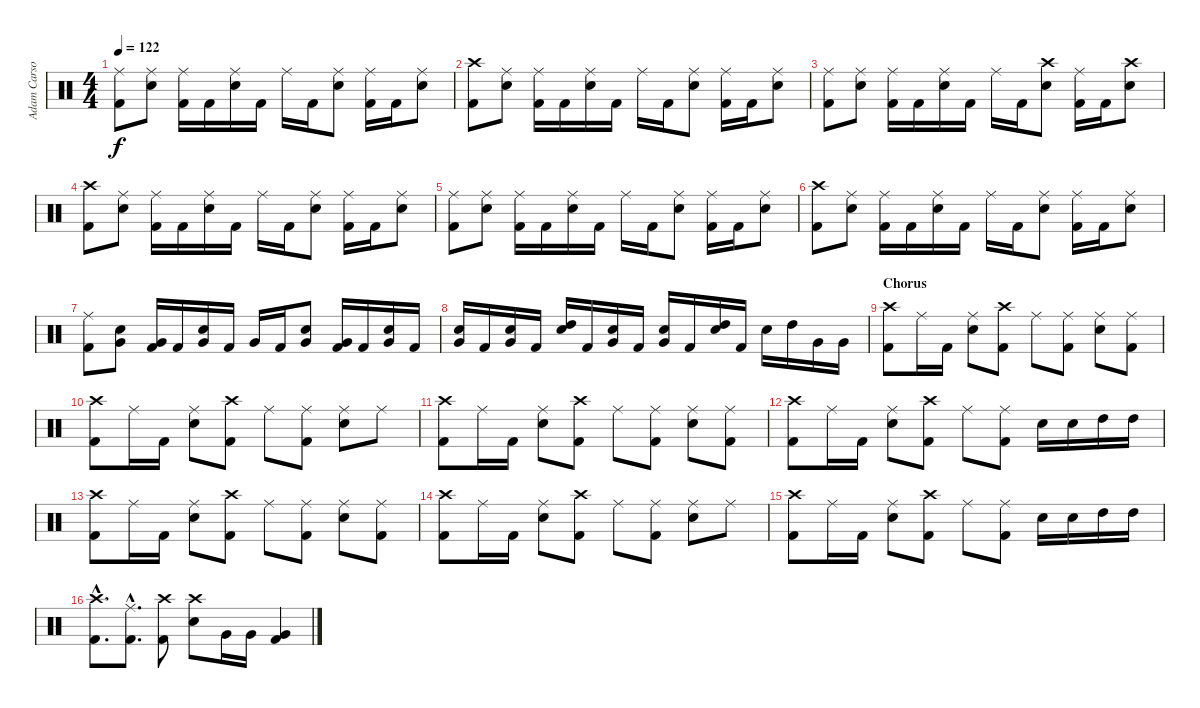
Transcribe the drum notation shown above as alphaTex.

\track ("Adam Carson" "Adam Carso") {instrument percussion}
\staff {score}
\articulation defaults
\ts (4 4)
\tempo 122
\clef neutral
\ks c
("Ride (middle)" "Kick (hit) 2").8{dy f} ("Ride (middle)" "Electric Snare (hit)").8 ("Ride (middle)" "Kick (hit) 2").16 "Kick (hit) 2".16 ("Ride (middle)" "Electric Snare (hit)").16 "Kick (hit) 2".16 "Ride (middle)".16 "Kick (hit) 2".16 ("Ride (middle)" "Electric Snare (hit)").8 ("Ride (middle)" "Kick (hit) 2").16 "Kick (hit) 2".16 ("Ride (middle)" "Electric Snare (hit)").8 |
("Crash high (hit)" "Kick (hit) 2").8 ("Ride (middle)" "Electric Snare (hit)").8 ("Ride (middle)" "Kick (hit) 2").16 "Kick (hit) 2".16 ("Ride (middle)" "Electric Snare (hit)").16 "Kick (hit) 2".16 "Ride (middle)".16 "Kick (hit) 2".16 ("Ride (middle)" "Electric Snare (hit)").8 ("Ride (middle)" "Kick (hit) 2").16 "Kick (hit) 2".16 ("Ride (middle)" "Electric Snare (hit)").8 |
("Ride (middle)" "Kick (hit) 2").8 ("Ride (middle)" "Electric Snare (hit)").8 ("Ride (middle)" "Kick (hit) 2").16 "Kick (hit) 2".16 ("Ride (middle)" "Electric Snare (hit)").16 "Kick (hit) 2".16 "Ride (middle)".16 "Kick (hit) 2".16 ("Crash high (hit)" "Electric Snare (hit)").8 ("Ride (middle)" "Kick (hit) 2").16 "Kick (hit) 2".16 ("Crash high (hit)" "Electric Snare (hit)").8 |
("Crash high (hit)" "Kick (hit) 2").8 ("Ride (middle)" "Electric Snare (hit)").8 ("Ride (middle)" "Kick (hit) 2").16 "Kick (hit) 2".16 ("Ride (middle)" "Electric Snare (hit)").16 "Kick (hit) 2".16 "Ride (middle)".16 "Kick (hit) 2".16 ("Ride (middle)" "Electric Snare (hit)").8 ("Ride (middle)" "Kick (hit) 2").16 "Kick (hit) 2".16 ("Ride (middle)" "Electric Snare (hit)").8 |
("Ride (middle)" "Kick (hit) 2").8 ("Ride (middle)" "Electric Snare (hit)").8 ("Ride (middle)" "Kick (hit) 2").16 "Kick (hit) 2".16 ("Ride (middle)" "Electric Snare (hit)").16 "Kick (hit) 2".16 "Ride (middle)".16 "Kick (hit) 2".16 ("Ride (middle)" "Electric Snare (hit)").8 ("Ride (middle)" "Kick (hit) 2").16 "Kick (hit) 2".16 ("Ride (middle)" "Electric Snare (hit)").8 |
("Crash high (hit)" "Kick (hit) 2").8 ("Ride (middle)" "Electric Snare (hit)").8 ("Ride (middle)" "Kick (hit) 2").16 "Kick (hit) 2".16 ("Ride (middle)" "Electric Snare (hit)").16 "Kick (hit) 2".16 "Ride (middle)".16 "Kick (hit) 2".16 ("Ride (middle)" "Electric Snare (hit)").8 ("Ride (middle)" "Kick (hit) 2").16 "Kick (hit) 2".16 ("Ride (middle)" "Electric Snare (hit)").8 |
("Ride (middle)" "Kick (hit) 2").8 ("Very Low Tom (hit)" "Electric Snare (hit)").8 ("Very Low Tom (hit)" "Kick (hit) 2").16 "Kick (hit) 2".16 ("Very Low Tom (hit)" "Electric Snare (hit)").16 "Kick (hit) 2".16 "Very Low Tom (hit)".16 "Kick (hit) 2".16 ("Very Low Tom (hit)" "Electric Snare (hit)").8 ("Very Low Tom (hit)" "Kick (hit) 2").16 "Kick (hit) 2".16 ("Very Low Tom (hit)" "Electric Snare (hit)").16 "Kick (hit) 2".16 |
("Very Low Tom (hit)" "Electric Snare (hit)").16 "Kick (hit) 2".16 ("Very Low Tom (hit)" "Electric Snare (hit)").16 "Kick (hit) 2".16 ("High Tom (hit)" "Electric Snare (hit)").16 "Kick (hit) 2".16 ("Very Low Tom (hit)" "Electric Snare (hit)").16 "Kick (hit) 2".16 ("Very Low Tom (hit)" "Electric Snare (hit)").16 "Kick (hit) 2".16 ("High Tom (hit)" "Electric Snare (hit)").16 "Kick (hit) 2".16 "Electric Snare (hit)".16 "High Tom (hit)".16 "Very Low Tom (hit)".16 "Very Low Tom (hit)".16 |
\section ("" "Chorus")
("Crash high (hit)" "Kick (hit) 2").8 "Ride (middle)".16 "Kick (hit) 2".16 ("Ride (middle)" "Electric Snare (hit)").8 ("Crash high (hit)" "Kick (hit) 2").8 "Ride (middle)".8 ("Ride (middle)" "Kick (hit) 2").8 ("Ride (middle)" "Electric Snare (hit)").8 ("Ride (middle)" "Kick (hit) 2").8 |
("Crash high (hit)" "Kick (hit) 2").8 "Ride (middle)".16 "Kick (hit) 2".16 ("Ride (middle)" "Electric Snare (hit)").8 ("Crash high (hit)" "Kick (hit) 2").8 "Ride (middle)".8 ("Ride (middle)" "Kick (hit) 2").8 ("Ride (middle)" "Electric Snare (hit)").8 "Ride (middle)".8 |
("Crash high (hit)" "Kick (hit) 2").8 "Ride (middle)".16 "Kick (hit) 2".16 ("Ride (middle)" "Electric Snare (hit)").8 ("Crash high (hit)" "Kick (hit) 2").8 "Ride (middle)".8 ("Ride (middle)" "Kick (hit) 2").8 ("Ride (middle)" "Electric Snare (hit)").8 ("Ride (middle)" "Kick (hit) 2").8 |
("Crash high (hit)" "Kick (hit) 2").8 "Ride (middle)".16 "Kick (hit) 2".16 ("Ride (middle)" "Electric Snare (hit)").8 ("Crash high (hit)" "Kick (hit) 2").8 "Ride (middle)".8 ("Ride (middle)" "Kick (hit) 2").8 "Electric Snare (hit)".16 "Electric Snare (hit)".16 "High Tom (hit)".16 "High Tom (hit)".16 |
("Crash high (hit)" "Kick (hit) 2").8 "Ride (middle)".16 "Kick (hit) 2".16 ("Ride (middle)" "Electric Snare (hit)").8 ("Crash high (hit)" "Kick (hit) 2").8 "Ride (middle)".8 ("Ride (middle)" "Kick (hit) 2").8 ("Ride (middle)" "Electric Snare (hit)").8 ("Ride (middle)" "Kick (hit) 2").8 |
("Crash high (hit)" "Kick (hit) 2").8 "Ride (middle)".16 "Kick (hit) 2".16 ("Ride (middle)" "Electric Snare (hit)").8 ("Crash high (hit)" "Kick (hit) 2").8 "Ride (middle)".8 ("Ride (middle)" "Kick (hit) 2").8 ("Ride (middle)" "Electric Snare (hit)").8 "Ride (middle)".8 |
("Crash high (hit)" "Kick (hit) 2").8 "Ride (middle)".16 "Kick (hit) 2".16 ("Ride (middle)" "Electric Snare (hit)").8 ("Crash high (hit)" "Kick (hit) 2").8 "Ride (middle)".8 ("Ride (middle)" "Kick (hit) 2").8 "Electric Snare (hit)".16 "Electric Snare (hit)".16 "High Tom (hit)".16 "High Tom (hit)".16 |
("Crash high (hit)"{hac} "Kick (hit) 2"{hac}).8{d} ("Ride (middle)"{hac} "Kick (hit) 2"{hac}).8{d} ("Crash high (hit)" "Kick (hit) 2").8 ("Crash high (hit)" "Electric Snare (hit)").8 "Very Low Tom (hit)".16 "Very Low Tom (hit)".16 ("Very Low Tom (hit)" "Kick (hit) 2").4
